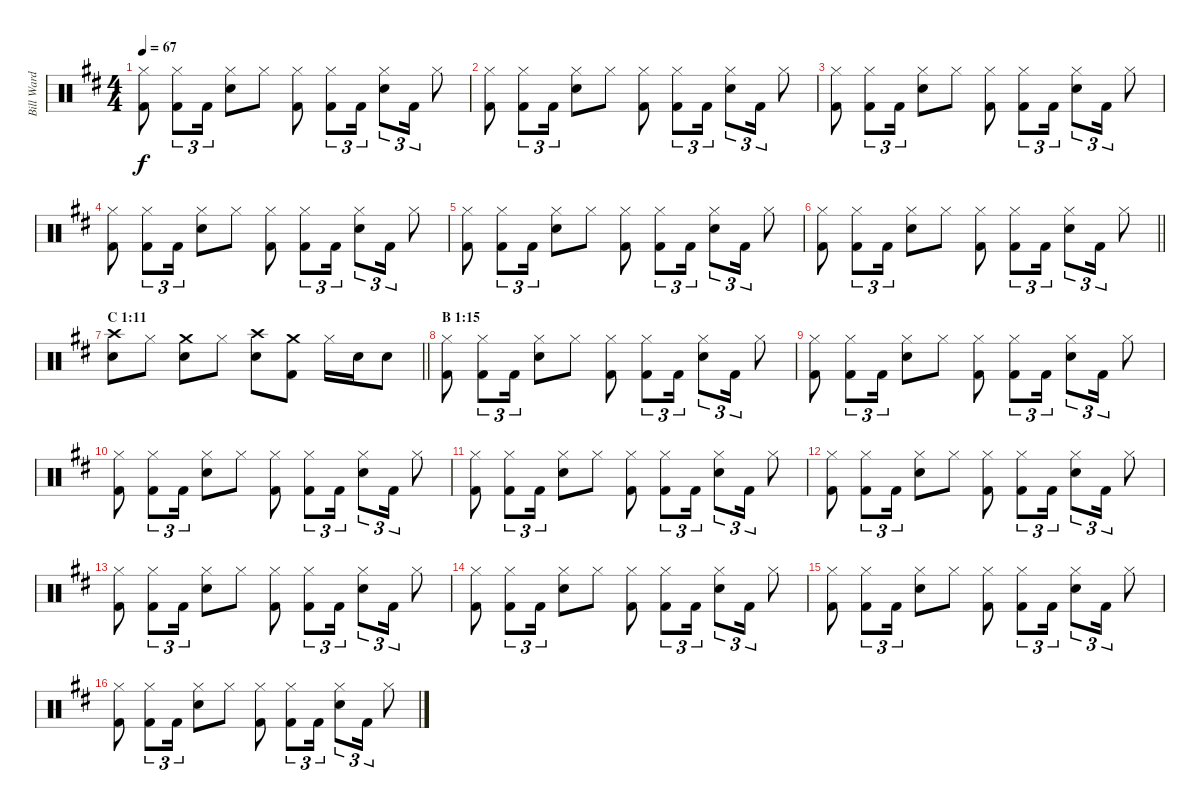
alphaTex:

\track ("Bill Ward (Drums)" "Bill Ward ") {instrument percussion}
\staff {score}
\articulation defaults
\ts (4 4)
\tempo 67
\clef neutral
\ks d
("Hi-Hat (closed)" "Kick (hit) 2").8{dy f} ("Hi-Hat (closed)" "Kick (hit) 2").8{tu (3 2)} "Kick (hit) 2".16{tu (3 2)} ("Hi-Hat (closed)" "Snare (hit) 2").8 "Hi-Hat (closed)".8 ("Hi-Hat (closed)" "Kick (hit) 2").8 ("Hi-Hat (closed)" "Kick (hit) 2").8{tu (3 2)} "Kick (hit) 2".16{tu (3 2)} ("Hi-Hat (closed)" "Snare (hit) 2").8{tu (3 2)} "Kick (hit) 2".16{tu (3 2)} "Hi-Hat (closed)".8 |
("Hi-Hat (closed)" "Kick (hit) 2").8 ("Hi-Hat (closed)" "Kick (hit) 2").8{tu (3 2)} "Kick (hit) 2".16{tu (3 2)} ("Hi-Hat (closed)" "Snare (hit) 2").8 "Hi-Hat (closed)".8 ("Hi-Hat (closed)" "Kick (hit) 2").8 ("Hi-Hat (closed)" "Kick (hit) 2").8{tu (3 2)} "Kick (hit) 2".16{tu (3 2)} ("Hi-Hat (closed)" "Snare (hit) 2").8{tu (3 2)} "Kick (hit) 2".16{tu (3 2)} "Hi-Hat (closed)".8 |
("Hi-Hat (closed)" "Kick (hit) 2").8 ("Hi-Hat (closed)" "Kick (hit) 2").8{tu (3 2)} "Kick (hit) 2".16{tu (3 2)} ("Hi-Hat (closed)" "Snare (hit) 2").8 "Hi-Hat (closed)".8 ("Hi-Hat (closed)" "Kick (hit) 2").8 ("Hi-Hat (closed)" "Kick (hit) 2").8{tu (3 2)} "Kick (hit) 2".16{tu (3 2)} ("Hi-Hat (closed)" "Snare (hit) 2").8{tu (3 2)} "Kick (hit) 2".16{tu (3 2)} "Hi-Hat (closed)".8 |
("Hi-Hat (closed)" "Kick (hit) 2").8 ("Hi-Hat (closed)" "Kick (hit) 2").8{tu (3 2)} "Kick (hit) 2".16{tu (3 2)} ("Hi-Hat (closed)" "Snare (hit) 2").8 "Hi-Hat (closed)".8 ("Hi-Hat (closed)" "Kick (hit) 2").8 ("Hi-Hat (closed)" "Kick (hit) 2").8{tu (3 2)} "Kick (hit) 2".16{tu (3 2)} ("Hi-Hat (closed)" "Snare (hit) 2").8{tu (3 2)} "Kick (hit) 2".16{tu (3 2)} "Hi-Hat (closed)".8 |
("Hi-Hat (closed)" "Kick (hit) 2").8 ("Hi-Hat (closed)" "Kick (hit) 2").8{tu (3 2)} "Kick (hit) 2".16{tu (3 2)} ("Hi-Hat (closed)" "Snare (hit) 2").8 "Hi-Hat (closed)".8 ("Hi-Hat (closed)" "Kick (hit) 2").8 ("Hi-Hat (closed)" "Kick (hit) 2").8{tu (3 2)} "Kick (hit) 2".16{tu (3 2)} ("Hi-Hat (closed)" "Snare (hit) 2").8{tu (3 2)} "Kick (hit) 2".16{tu (3 2)} "Hi-Hat (closed)".8 |
\barLineRight lightlight
("Hi-Hat (closed)" "Kick (hit) 2").8 ("Hi-Hat (closed)" "Kick (hit) 2").8{tu (3 2)} "Kick (hit) 2".16{tu (3 2)} ("Hi-Hat (closed)" "Snare (hit) 2").8 "Hi-Hat (closed)".8 ("Hi-Hat (closed)" "Kick (hit) 2").8 ("Hi-Hat (closed)" "Kick (hit) 2").8{tu (3 2)} "Kick (hit) 2".16{tu (3 2)} ("Hi-Hat (closed)" "Snare (hit) 2").8{tu (3 2)} "Kick (hit) 2".16{tu (3 2)} "Hi-Hat (closed)".8 |
\section ("" "C 1:11")
\barLineRight lightlight
("Crash high (hit)" "Snare (hit) 2").8 "Hi-Hat (closed)".8 ("Crash medium (hit)" "Snare (hit) 2").8 "Hi-Hat (closed)".8 ("Crash high (hit)" "Snare (hit) 2").8 ("Crash medium (hit)" "Kick (hit) 2").8 "Hi-Hat (closed)".16 "Snare (hit) 2".16 "Snare (hit) 2".8 |
\section ("" "B 1:15")
("Hi-Hat (closed)" "Kick (hit) 2").8 ("Hi-Hat (closed)" "Kick (hit) 2").8{tu (3 2)} "Kick (hit) 2".16{tu (3 2)} ("Hi-Hat (closed)" "Snare (hit) 2").8 "Hi-Hat (closed)".8 ("Hi-Hat (closed)" "Kick (hit) 2").8 ("Hi-Hat (closed)" "Kick (hit) 2").8{tu (3 2)} "Kick (hit) 2".16{tu (3 2)} ("Hi-Hat (closed)" "Snare (hit) 2").8{tu (3 2)} "Kick (hit) 2".16{tu (3 2)} "Hi-Hat (closed)".8 |
("Hi-Hat (closed)" "Kick (hit) 2").8 ("Hi-Hat (closed)" "Kick (hit) 2").8{tu (3 2)} "Kick (hit) 2".16{tu (3 2)} ("Hi-Hat (closed)" "Snare (hit) 2").8 "Hi-Hat (closed)".8 ("Hi-Hat (closed)" "Kick (hit) 2").8 ("Hi-Hat (closed)" "Kick (hit) 2").8{tu (3 2)} "Kick (hit) 2".16{tu (3 2)} ("Hi-Hat (closed)" "Snare (hit) 2").8{tu (3 2)} "Kick (hit) 2".16{tu (3 2)} "Hi-Hat (closed)".8 |
("Hi-Hat (closed)" "Kick (hit) 2").8 ("Hi-Hat (closed)" "Kick (hit) 2").8{tu (3 2)} "Kick (hit) 2".16{tu (3 2)} ("Hi-Hat (closed)" "Snare (hit) 2").8 "Hi-Hat (closed)".8 ("Hi-Hat (closed)" "Kick (hit) 2").8 ("Hi-Hat (closed)" "Kick (hit) 2").8{tu (3 2)} "Kick (hit) 2".16{tu (3 2)} ("Hi-Hat (closed)" "Snare (hit) 2").8{tu (3 2)} "Kick (hit) 2".16{tu (3 2)} "Hi-Hat (closed)".8 |
("Hi-Hat (closed)" "Kick (hit) 2").8 ("Hi-Hat (closed)" "Kick (hit) 2").8{tu (3 2)} "Kick (hit) 2".16{tu (3 2)} ("Hi-Hat (closed)" "Snare (hit) 2").8 "Hi-Hat (closed)".8 ("Hi-Hat (closed)" "Kick (hit) 2").8 ("Hi-Hat (closed)" "Kick (hit) 2").8{tu (3 2)} "Kick (hit) 2".16{tu (3 2)} ("Hi-Hat (closed)" "Snare (hit) 2").8{tu (3 2)} "Kick (hit) 2".16{tu (3 2)} "Hi-Hat (closed)".8 |
("Hi-Hat (closed)" "Kick (hit) 2").8 ("Hi-Hat (closed)" "Kick (hit) 2").8{tu (3 2)} "Kick (hit) 2".16{tu (3 2)} ("Hi-Hat (closed)" "Snare (hit) 2").8 "Hi-Hat (closed)".8 ("Hi-Hat (closed)" "Kick (hit) 2").8 ("Hi-Hat (closed)" "Kick (hit) 2").8{tu (3 2)} "Kick (hit) 2".16{tu (3 2)} ("Hi-Hat (closed)" "Snare (hit) 2").8{tu (3 2)} "Kick (hit) 2".16{tu (3 2)} "Hi-Hat (closed)".8 |
("Hi-Hat (closed)" "Kick (hit) 2").8 ("Hi-Hat (closed)" "Kick (hit) 2").8{tu (3 2)} "Kick (hit) 2".16{tu (3 2)} ("Hi-Hat (closed)" "Snare (hit) 2").8 "Hi-Hat (closed)".8 ("Hi-Hat (closed)" "Kick (hit) 2").8 ("Hi-Hat (closed)" "Kick (hit) 2").8{tu (3 2)} "Kick (hit) 2".16{tu (3 2)} ("Hi-Hat (closed)" "Snare (hit) 2").8{tu (3 2)} "Kick (hit) 2".16{tu (3 2)} "Hi-Hat (closed)".8 |
("Hi-Hat (closed)" "Kick (hit) 2").8 ("Hi-Hat (closed)" "Kick (hit) 2").8{tu (3 2)} "Kick (hit) 2".16{tu (3 2)} ("Hi-Hat (closed)" "Snare (hit) 2").8 "Hi-Hat (closed)".8 ("Hi-Hat (closed)" "Kick (hit) 2").8 ("Hi-Hat (closed)" "Kick (hit) 2").8{tu (3 2)} "Kick (hit) 2".16{tu (3 2)} ("Hi-Hat (closed)" "Snare (hit) 2").8{tu (3 2)} "Kick (hit) 2".16{tu (3 2)} "Hi-Hat (closed)".8 |
("Hi-Hat (closed)" "Kick (hit) 2").8 ("Hi-Hat (closed)" "Kick (hit) 2").8{tu (3 2)} "Kick (hit) 2".16{tu (3 2)} ("Hi-Hat (closed)" "Snare (hit) 2").8 "Hi-Hat (closed)".8 ("Hi-Hat (closed)" "Kick (hit) 2").8 ("Hi-Hat (closed)" "Kick (hit) 2").8{tu (3 2)} "Kick (hit) 2".16{tu (3 2)} ("Hi-Hat (closed)" "Snare (hit) 2").8{tu (3 2)} "Kick (hit) 2".16{tu (3 2)} "Hi-Hat (closed)".8 |
("Hi-Hat (closed)" "Kick (hit) 2").8 ("Hi-Hat (closed)" "Kick (hit) 2").8{tu (3 2)} "Kick (hit) 2".16{tu (3 2)} ("Hi-Hat (closed)" "Snare (hit) 2").8 "Hi-Hat (closed)".8 ("Hi-Hat (closed)" "Kick (hit) 2").8 ("Hi-Hat (closed)" "Kick (hit) 2").8{tu (3 2)} "Kick (hit) 2".16{tu (3 2)} ("Hi-Hat (closed)" "Snare (hit) 2").8{tu (3 2)} "Kick (hit) 2".16{tu (3 2)} "Hi-Hat (closed)".8
